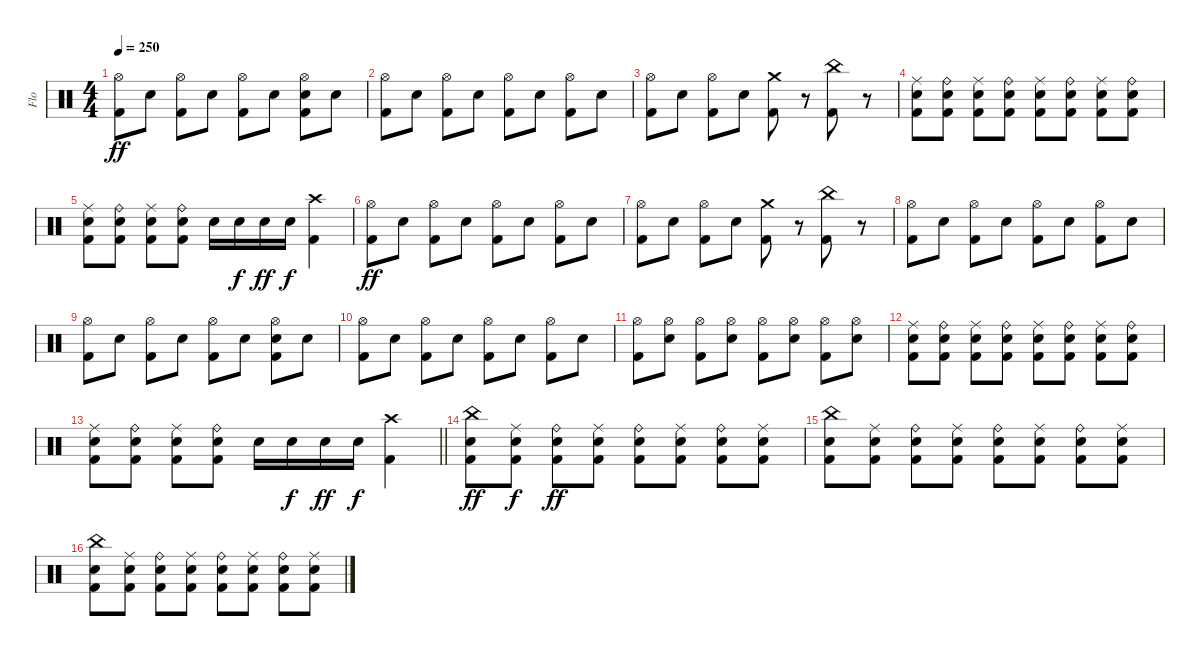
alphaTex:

\track ("Flo" "Flo") {instrument percussion}
\staff {score}
\articulation defaults
\ts (4 4)
\tempo 250
\clef neutral
\ks c
("Hi-Hat (open)" "Kick (hit) 2").8{dy ff} "Electric Snare (hit)".8 ("Hi-Hat (open)" "Kick (hit) 2").8 "Electric Snare (hit)".8 ("Hi-Hat (open)" "Kick (hit) 2").8 "Electric Snare (hit)".8 ("Hi-Hat (open)" "Electric Snare (hit)" "Kick (hit) 2").8 "Electric Snare (hit)".8 |
("Hi-Hat (open)" "Kick (hit) 2").8 "Electric Snare (hit)".8 ("Hi-Hat (open)" "Kick (hit) 2").8 "Electric Snare (hit)".8 ("Hi-Hat (open)" "Kick (hit) 2").8 "Electric Snare (hit)".8 ("Hi-Hat (open)" "Kick (hit) 2").8 "Electric Snare (hit)".8 |
("Hi-Hat (open)" "Kick (hit) 2").8 "Electric Snare (hit)".8 ("Hi-Hat (open)" "Kick (hit) 2").8 "Electric Snare (hit)".8 ("Crash medium (hit)" "Kick (hit) 2").8 r.8 ("China (hit)" "Kick (hit) 2").8 r.8 |
("Ride (middle)" "Electric Snare (hit)" "Kick (hit) 2").8 ("Ride (bell)" "Electric Snare (hit)" "Kick (hit) 2").8 ("Ride (middle)" "Electric Snare (hit)" "Kick (hit) 2").8 ("Ride (bell)" "Electric Snare (hit)" "Kick (hit) 2").8 ("Ride (middle)" "Electric Snare (hit)" "Kick (hit) 2").8 ("Ride (bell)" "Electric Snare (hit)" "Kick (hit) 2").8 ("Ride (middle)" "Electric Snare (hit)" "Kick (hit) 2").8 ("Ride (bell)" "Electric Snare (hit)" "Kick (hit) 2").8 |
("Ride (middle)" "Electric Snare (hit)" "Kick (hit) 2").8 ("Ride (bell)" "Electric Snare (hit)" "Kick (hit) 2").8 ("Ride (middle)" "Electric Snare (hit)" "Kick (hit) 2").8 ("Ride (bell)" "Electric Snare (hit)" "Kick (hit) 2").8 "Electric Snare (hit)".16 "Electric Snare (hit)".16{dy f} "Electric Snare (hit)".16{dy ff} "Electric Snare (hit)".16{dy f} ("Crash high (hit)" "Kick (hit) 2").4 |
("Hi-Hat (open)" "Kick (hit) 2").8{dy ff} "Electric Snare (hit)".8 ("Hi-Hat (open)" "Kick (hit) 2").8 "Electric Snare (hit)".8 ("Hi-Hat (open)" "Kick (hit) 2").8 "Electric Snare (hit)".8 ("Hi-Hat (open)" "Kick (hit) 2").8 "Electric Snare (hit)".8 |
("Hi-Hat (open)" "Kick (hit) 2").8 "Electric Snare (hit)".8 ("Hi-Hat (open)" "Kick (hit) 2").8 "Electric Snare (hit)".8 ("Crash medium (hit)" "Kick (hit) 2").8 r.8 ("China (hit)" "Kick (hit) 2").8 r.8 |
("Hi-Hat (open)" "Kick (hit) 2").8 "Electric Snare (hit)".8 ("Hi-Hat (open)" "Kick (hit) 2").8 "Electric Snare (hit)".8 ("Hi-Hat (open)" "Kick (hit) 2").8 "Electric Snare (hit)".8 ("Hi-Hat (open)" "Kick (hit) 2").8 "Electric Snare (hit)".8 |
("Hi-Hat (open)" "Kick (hit) 2").8 "Electric Snare (hit)".8 ("Hi-Hat (open)" "Kick (hit) 2").8 "Electric Snare (hit)".8 ("Hi-Hat (open)" "Kick (hit) 2").8 "Electric Snare (hit)".8 ("Hi-Hat (open)" "Electric Snare (hit)" "Kick (hit) 2").8 "Electric Snare (hit)".8 |
("Hi-Hat (open)" "Kick (hit) 2").8 "Electric Snare (hit)".8 ("Hi-Hat (open)" "Kick (hit) 2").8 "Electric Snare (hit)".8 ("Hi-Hat (open)" "Kick (hit) 2").8 "Electric Snare (hit)".8 ("Hi-Hat (open)" "Kick (hit) 2").8 "Electric Snare (hit)".8 |
("Hi-Hat (open)" "Kick (hit) 2").8 ("Hi-Hat (open)" "Electric Snare (hit)").8 ("Hi-Hat (open)" "Kick (hit) 2").8 ("Hi-Hat (open)" "Electric Snare (hit)").8 ("Hi-Hat (open)" "Kick (hit) 2").8 ("Hi-Hat (open)" "Electric Snare (hit)").8 ("Hi-Hat (open)" "Kick (hit) 2").8 ("Hi-Hat (open)" "Electric Snare (hit)").8 |
("Ride (middle)" "Electric Snare (hit)" "Kick (hit) 2").8 ("Ride (bell)" "Electric Snare (hit)" "Kick (hit) 2").8 ("Ride (middle)" "Electric Snare (hit)" "Kick (hit) 2").8 ("Ride (bell)" "Electric Snare (hit)" "Kick (hit) 2").8 ("Ride (middle)" "Electric Snare (hit)" "Kick (hit) 2").8 ("Ride (bell)" "Electric Snare (hit)" "Kick (hit) 2").8 ("Ride (middle)" "Electric Snare (hit)" "Kick (hit) 2").8 ("Ride (bell)" "Electric Snare (hit)" "Kick (hit) 2").8 |
\barLineRight lightlight
("Ride (middle)" "Electric Snare (hit)" "Kick (hit) 2").8 ("Ride (bell)" "Electric Snare (hit)" "Kick (hit) 2").8 ("Ride (middle)" "Electric Snare (hit)" "Kick (hit) 2").8 ("Ride (bell)" "Electric Snare (hit)" "Kick (hit) 2").8 "Electric Snare (hit)".16 "Electric Snare (hit)".16{dy f} "Electric Snare (hit)".16{dy ff} "Electric Snare (hit)".16{dy f} ("Crash high (hit)" "Kick (hit) 2").4 |
("China (hit)" "Electric Snare (hit)" "Kick (hit) 2").8{dy ff} ("Ride (middle)" "Electric Snare (hit)" "Kick (hit) 2").8{dy f} ("Ride (bell)" "Electric Snare (hit)" "Kick (hit) 2").8{dy ff} ("Ride (middle)" "Electric Snare (hit)" "Kick (hit) 2").8 ("Ride (bell)" "Electric Snare (hit)" "Kick (hit) 2").8 ("Ride (middle)" "Electric Snare (hit)" "Kick (hit) 2").8 ("Ride (bell)" "Electric Snare (hit)" "Kick (hit) 2").8 ("Ride (middle)" "Electric Snare (hit)" "Kick (hit) 2").8 |
("China (hit)" "Electric Snare (hit)" "Kick (hit) 2").8 ("Ride (middle)" "Electric Snare (hit)" "Kick (hit) 2").8 ("Ride (bell)" "Electric Snare (hit)" "Kick (hit) 2").8 ("Ride (middle)" "Electric Snare (hit)" "Kick (hit) 2").8 ("Ride (bell)" "Electric Snare (hit)" "Kick (hit) 2").8 ("Ride (middle)" "Electric Snare (hit)" "Kick (hit) 2").8 ("Ride (bell)" "Electric Snare (hit)" "Kick (hit) 2").8 ("Ride (middle)" "Electric Snare (hit)" "Kick (hit) 2").8 |
("China (hit)" "Electric Snare (hit)" "Kick (hit) 2").8 ("Ride (middle)" "Electric Snare (hit)" "Kick (hit) 2").8 ("Ride (bell)" "Electric Snare (hit)" "Kick (hit) 2").8 ("Ride (middle)" "Electric Snare (hit)" "Kick (hit) 2").8 ("Ride (bell)" "Electric Snare (hit)" "Kick (hit) 2").8 ("Ride (middle)" "Electric Snare (hit)" "Kick (hit) 2").8 ("Ride (bell)" "Electric Snare (hit)" "Kick (hit) 2").8 ("Ride (middle)" "Electric Snare (hit)" "Kick (hit) 2").8
